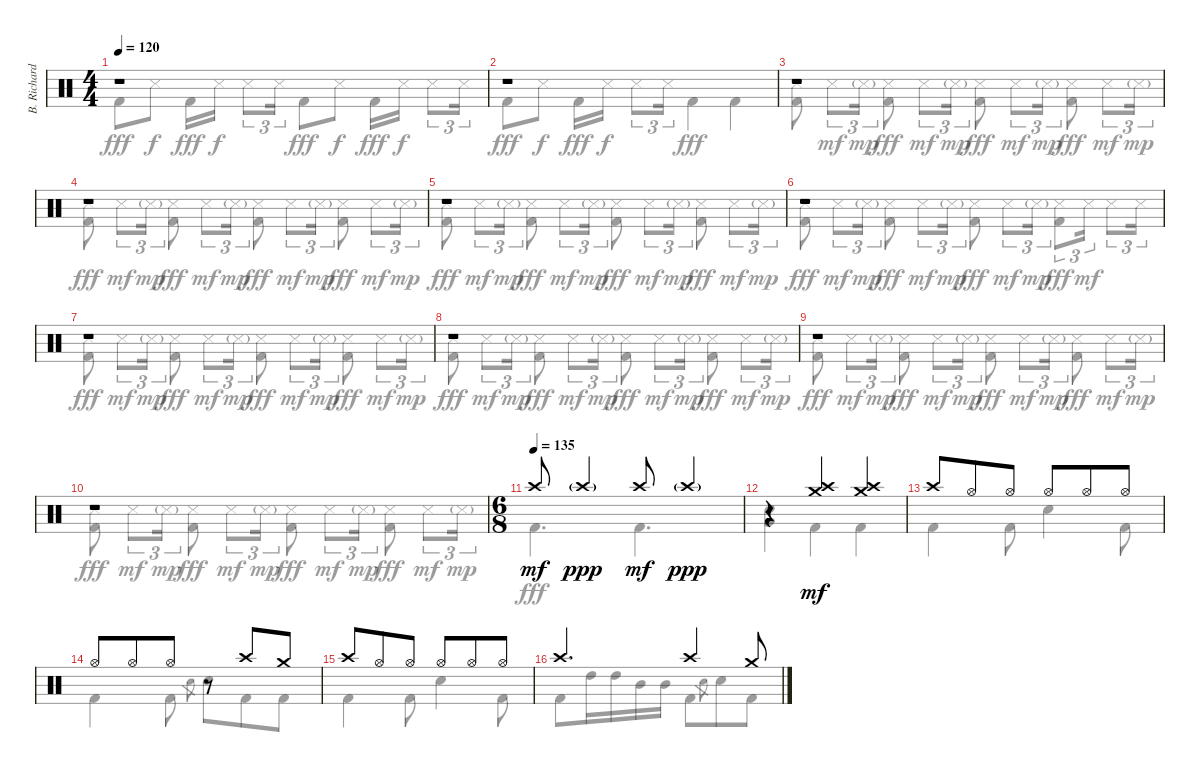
\track ("B. Richardson Drums" "B. Richard") {instrument percussion}
\staff {score}
\articulation defaults
\voice
\ts (4 4)
\tempo 120
\clef neutral
\ks c
r.1{dy mf} |
r.1 |
r.1 |
r.1 |
r.1 |
r.1 |
r.1 |
r.1 |
r.1 |
r.1 |
\ts (6 8)
\tempo (135)
"Crash high (hit)".8 "Crash high (hit)"{g}.4{dy ppp} "Crash high (hit)".8{dy mf} "Crash high (hit)"{g}.4{dy ppp} |
r.4 ("Crash high (hit)" "Crash medium (hit)").4{dy mf} ("Crash medium (hit)" "Crash high (hit)").4 |
"Crash high (hit)".8 "Hi-Hat (open)".8 "Hi-Hat (open)".8 "Hi-Hat (open)".8 "Hi-Hat (open)".8 "Hi-Hat (open)".8 |
"Hi-Hat (open)".8 "Hi-Hat (open)".8 "Hi-Hat (open)".8 r.8 "Crash high (hit)".8 "Crash medium (hit)".8 |
"Crash high (hit)".8 "Hi-Hat (open)".8 "Hi-Hat (open)".8 "Hi-Hat (open)".8 "Hi-Hat (open)".8 "Hi-Hat (open)".8 |
"Crash high (hit)".4{d} "Crash high (hit)".4 "Crash medium (hit)".8
\voice
\clef neutral
\ottava regular
\simile none
\ks c "Kick (hit) 2".8{dy fff} "Snare (side stick) 3".8{dy f} "Kick (hit) 2".16{dy fff} "Snare (side stick) 3".16{dy f} "Snare (side stick) 3".8{tu (3 2)} "Snare (side stick) 3".16{tu (3 2)} "Kick (hit) 2".8{dy fff} "Snare (side stick) 3".8{dy f} "Kick (hit) 2".16{dy fff} "Snare (side stick) 3".16{dy f} "Snare (side stick) 3".8{tu (3 2)} "Snare (side stick) 3".16{tu (3 2)}
|
"Kick (hit) 2".8{dy fff} "Snare (side stick) 3".8{dy f} "Kick (hit) 2".16{dy fff} "Snare (side stick) 3".16{dy f} "Snare (side stick) 3".8{tu (3 2)} "Snare (side stick) 3".16{tu (3 2)} "Kick (hit) 2".4{dy fff} "Kick (hit) 2".4 |
("Snare (side stick) 3" "Kick (hit) 2").8 "Snare (side stick) 3".8{tu (3 2) dy mf} "Snare (side stick) 3"{g}.16{tu (3 2) dy mp} ("Snare (side stick) 3" "Kick (hit) 2").8{dy fff} "Snare (side stick) 3".8{tu (3 2) dy mf} "Snare (side stick) 3"{g}.16{tu (3 2) dy mp} ("Snare (side stick) 3" "Kick (hit) 2").8{dy fff} "Snare (side stick) 3".8{tu (3 2) dy mf} "Snare (side stick) 3"{g}.16{tu (3 2) dy mp} ("Snare (side stick) 3" "Kick (hit) 2").8{dy fff} "Snare (side stick) 3".8{tu (3 2) dy mf} "Snare (side stick) 3"{g}.16{tu (3 2) dy mp} |
("Snare (side stick) 3" "Kick (hit) 2").8{dy fff} "Snare (side stick) 3".8{tu (3 2) dy mf} "Snare (side stick) 3"{g}.16{tu (3 2) dy mp} ("Snare (side stick) 3" "Kick (hit) 2").8{dy fff} "Snare (side stick) 3".8{tu (3 2) dy mf} "Snare (side stick) 3"{g}.16{tu (3 2) dy mp} ("Snare (side stick) 3" "Kick (hit) 2").8{dy fff} "Snare (side stick) 3".8{tu (3 2) dy mf} "Snare (side stick) 3"{g}.16{tu (3 2) dy mp} ("Snare (side stick) 3" "Kick (hit) 2").8{dy fff} "Snare (side stick) 3".8{tu (3 2) dy mf} "Snare (side stick) 3"{g}.16{tu (3 2) dy mp} |
("Snare (side stick) 3" "Kick (hit) 2").8{dy fff} "Snare (side stick) 3".8{tu (3 2) dy mf} "Snare (side stick) 3"{g}.16{tu (3 2) dy mp} ("Snare (side stick) 3" "Kick (hit) 2").8{dy fff} "Snare (side stick) 3".8{tu (3 2) dy mf} "Snare (side stick) 3"{g}.16{tu (3 2) dy mp} ("Snare (side stick) 3" "Kick (hit) 2").8{dy fff} "Snare (side stick) 3".8{tu (3 2) dy mf} "Snare (side stick) 3"{g}.16{tu (3 2) dy mp} ("Snare (side stick) 3" "Kick (hit) 2").8{dy fff} "Snare (side stick) 3".8{tu (3 2) dy mf} "Snare (side stick) 3"{g}.16{tu (3 2) dy mp} |
("Snare (side stick) 3" "Kick (hit) 2").8{dy fff} "Snare (side stick) 3".8{tu (3 2) dy mf} "Snare (side stick) 3"{g}.16{tu (3 2) dy mp} ("Snare (side stick) 3" "Kick (hit) 2").8{dy fff} "Snare (side stick) 3".8{tu (3 2) dy mf} "Snare (side stick) 3"{g}.16{tu (3 2) dy mp} ("Snare (side stick) 3" "Kick (hit) 2").8{dy fff} "Snare (side stick) 3".8{tu (3 2) dy mf} "Snare (side stick) 3"{g}.16{tu (3 2) dy mp} ("Snare (side stick) 3" "Kick (hit) 2").8{tu (3 2) dy fff} "Snare (side stick) 3".16{tu (3 2) dy mf} "Snare (side stick) 3".8{tu (3 2)} "Snare (side stick) 3".16{tu (3 2)} |
("Snare (side stick) 3" "Kick (hit) 2").8{dy fff} "Snare (side stick) 3".8{tu (3 2) dy mf} "Snare (side stick) 3"{g}.16{tu (3 2) dy mp} ("Snare (side stick) 3" "Kick (hit) 2").8{dy fff} "Snare (side stick) 3".8{tu (3 2) dy mf} "Snare (side stick) 3"{g}.16{tu (3 2) dy mp} ("Snare (side stick) 3" "Kick (hit) 2").8{dy fff} "Snare (side stick) 3".8{tu (3 2) dy mf} "Snare (side stick) 3"{g}.16{tu (3 2) dy mp} ("Snare (side stick) 3" "Kick (hit) 2").8{dy fff} "Snare (side stick) 3".8{tu (3 2) dy mf} "Snare (side stick) 3"{g}.16{tu (3 2) dy mp} |
("Snare (side stick) 3" "Kick (hit) 2").8{dy fff} "Snare (side stick) 3".8{tu (3 2) dy mf} "Snare (side stick) 3"{g}.16{tu (3 2) dy mp} ("Snare (side stick) 3" "Kick (hit) 2").8{dy fff} "Snare (side stick) 3".8{tu (3 2) dy mf} "Snare (side stick) 3"{g}.16{tu (3 2) dy mp} ("Snare (side stick) 3" "Kick (hit) 2").8{dy fff} "Snare (side stick) 3".8{tu (3 2) dy mf} "Snare (side stick) 3"{g}.16{tu (3 2) dy mp} ("Snare (side stick) 3" "Kick (hit) 2").8{dy fff} "Snare (side stick) 3".8{tu (3 2) dy mf} "Snare (side stick) 3"{g}.16{tu (3 2) dy mp} |
("Snare (side stick) 3" "Kick (hit) 2").8{dy fff} "Snare (side stick) 3".8{tu (3 2) dy mf} "Snare (side stick) 3"{g}.16{tu (3 2) dy mp} ("Snare (side stick) 3" "Kick (hit) 2").8{dy fff} "Snare (side stick) 3".8{tu (3 2) dy mf} "Snare (side stick) 3"{g}.16{tu (3 2) dy mp} ("Snare (side stick) 3" "Kick (hit) 2").8{dy fff} "Snare (side stick) 3".8{tu (3 2) dy mf} "Snare (side stick) 3"{g}.16{tu (3 2) dy mp} ("Snare (side stick) 3" "Kick (hit) 2").8{dy fff} "Snare (side stick) 3".8{tu (3 2) dy mf} "Snare (side stick) 3"{g}.16{tu (3 2) dy mp} |
("Snare (side stick) 3" "Kick (hit) 2").8{dy fff} "Snare (side stick) 3".8{tu (3 2) dy mf} "Snare (side stick) 3"{g}.16{tu (3 2) dy mp} ("Snare (side stick) 3" "Kick (hit) 2").8{dy fff} "Snare (side stick) 3".8{tu (3 2) dy mf} "Snare (side stick) 3"{g}.16{tu (3 2) dy mp} ("Snare (side stick) 3" "Kick (hit) 2").8{dy fff} "Snare (side stick) 3".8{tu (3 2) dy mf} "Snare (side stick) 3"{g}.16{tu (3 2) dy mp} ("Snare (side stick) 3" "Kick (hit) 2").8{dy fff} "Snare (side stick) 3".8{tu (3 2) dy mf} "Snare (side stick) 3"{g}.16{tu (3 2) dy mp} |
"Kick (hit) 2".4{d dy fff} "Kick (hit) 2".4{d} |
("Electric Snare (hit)" "Very Low Tom (hit)").4 "Kick (hit) 2".4 "Kick (hit) 2".4 |
"Kick (hit) 2".4 "Kick (hit) 2".8 "Electric Snare (hit)".4 "Kick (hit) 2".8 |
"Kick (hit) 2".4 "Kick (hit) 2".8 "Electric Snare (hit)".8{gr} "Electric Snare (hit)".8 "Kick (hit) 2".8 "Kick (hit) 2".8 |
"Kick (hit) 2".4 "Kick (hit) 2".8 "Electric Snare (hit)".4 "Kick (hit) 2".8 |
"Kick (hit) 2".8 "High Tom (hit)".16 "High Tom (hit)".16 "Mid Tom (hit)".16 "Mid Tom (hit)".16 "Kick (hit) 2".8 "Electric Snare (hit)".8{gr} "Electric Snare (hit)".8 "Kick (hit) 2".8
